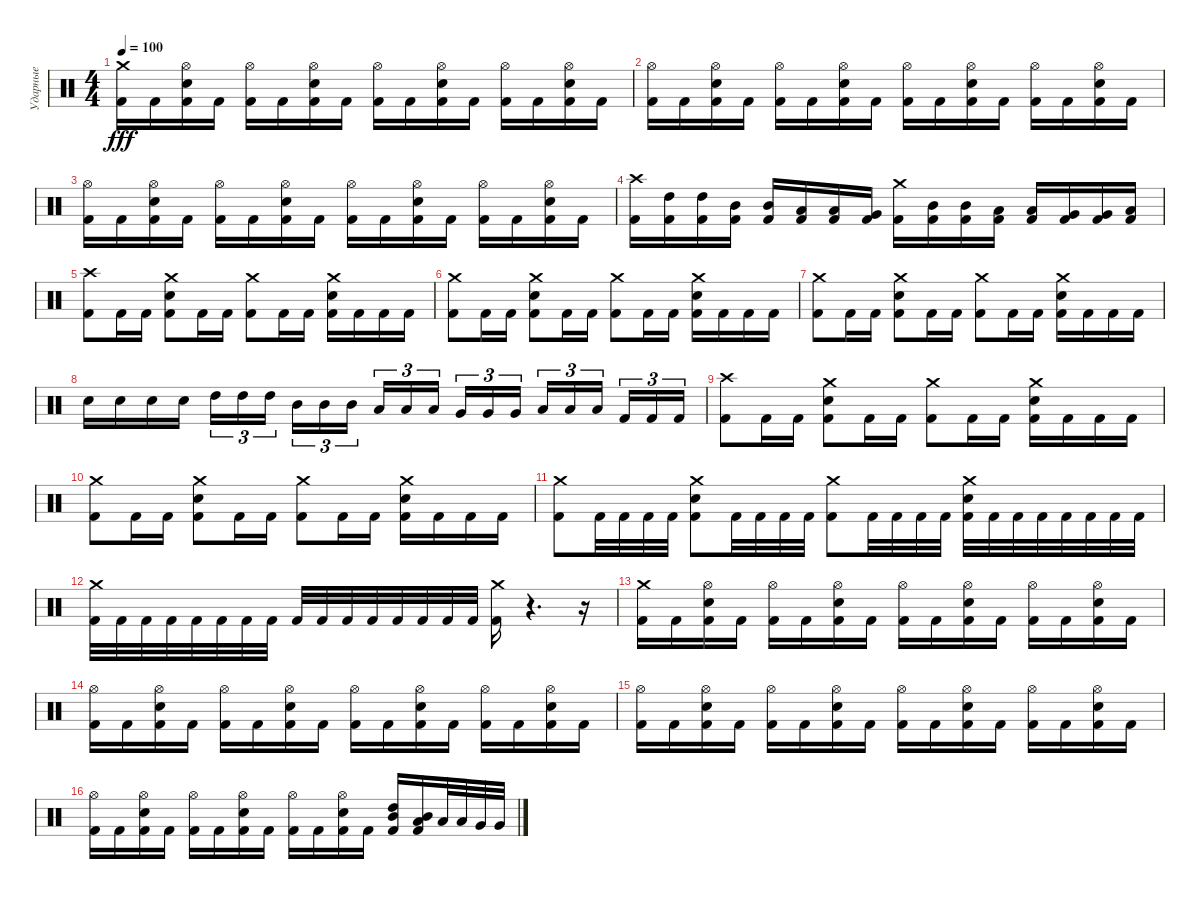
\track ("Ударные" "Ударные") {instrument percussion}
\staff {score}
\articulation defaults
\ts (4 4)
\tempo 100
\clef neutral
\ks c
("Crash medium (hit)" "Kick (hit) 2").16{dy fff} "Kick (hit) 2".16 ("Hi-Hat (open)" "Electric Snare (hit)" "Kick (hit) 2").16 "Kick (hit) 2".16 ("Hi-Hat (open)" "Kick (hit) 2").16 "Kick (hit) 2".16 ("Hi-Hat (open)" "Electric Snare (hit)" "Kick (hit) 2").16 "Kick (hit) 2".16 ("Hi-Hat (open)" "Kick (hit) 2").16 "Kick (hit) 2".16 ("Hi-Hat (open)" "Electric Snare (hit)" "Kick (hit) 2").16 "Kick (hit) 2".16 ("Hi-Hat (open)" "Kick (hit) 2").16 "Kick (hit) 2".16 ("Hi-Hat (open)" "Electric Snare (hit)" "Kick (hit) 2").16 "Kick (hit) 2".16 |
("Hi-Hat (open)" "Kick (hit) 2").16 "Kick (hit) 2".16 ("Hi-Hat (open)" "Electric Snare (hit)" "Kick (hit) 2").16 "Kick (hit) 2".16 ("Hi-Hat (open)" "Kick (hit) 2").16 "Kick (hit) 2".16 ("Hi-Hat (open)" "Electric Snare (hit)" "Kick (hit) 2").16 "Kick (hit) 2".16 ("Hi-Hat (open)" "Kick (hit) 2").16 "Kick (hit) 2".16 ("Hi-Hat (open)" "Electric Snare (hit)" "Kick (hit) 2").16 "Kick (hit) 2".16 ("Hi-Hat (open)" "Kick (hit) 2").16 "Kick (hit) 2".16 ("Hi-Hat (open)" "Electric Snare (hit)" "Kick (hit) 2").16 "Kick (hit) 2".16 |
("Hi-Hat (open)" "Kick (hit) 2").16 "Kick (hit) 2".16 ("Hi-Hat (open)" "Electric Snare (hit)" "Kick (hit) 2").16 "Kick (hit) 2".16 ("Hi-Hat (open)" "Kick (hit) 2").16 "Kick (hit) 2".16 ("Hi-Hat (open)" "Electric Snare (hit)" "Kick (hit) 2").16 "Kick (hit) 2".16 ("Hi-Hat (open)" "Kick (hit) 2").16 "Kick (hit) 2".16 ("Hi-Hat (open)" "Electric Snare (hit)" "Kick (hit) 2").16 "Kick (hit) 2".16 ("Hi-Hat (open)" "Kick (hit) 2").16 "Kick (hit) 2".16 ("Hi-Hat (open)" "Electric Snare (hit)" "Kick (hit) 2").16 "Kick (hit) 2".16 |
("Crash high (hit)" "Kick (hit) 2").16 ("High Tom (hit)" "Kick (hit) 2").16 ("High Tom (hit)" "Kick (hit) 2").16 ("Mid Tom (hit)" "Kick (hit) 2").16 ("Mid Tom (hit)" "Kick (hit) 2").16 ("Low Tom (hit)" "Kick (hit) 2").16 ("Low Tom (hit)" "Kick (hit) 2").16 ("Very Low Tom (hit)" "Kick (hit) 2").16 ("Crash medium (hit)" "Kick (hit) 2").16 ("Mid Tom (hit)" "Kick (hit) 2").16 ("Mid Tom (hit)" "Kick (hit) 2").16 ("Low Tom (hit)" "Kick (hit) 2").16 ("Low Tom (hit)" "Kick (hit) 2").16 ("Very Low Tom (hit)" "Kick (hit) 2").16 ("Very Low Tom (hit)" "Kick (hit) 2").16 ("Low Floor Tom (hit)" "Kick (hit) 2").16 |
("Crash high (hit)" "Kick (hit) 2").8 "Kick (hit) 2".16 "Kick (hit) 2".16 ("Crash medium (hit)" "Electric Snare (hit)" "Kick (hit) 2").8 "Kick (hit) 2".16 "Kick (hit) 2".16 ("Crash medium (hit)" "Kick (hit) 2").8 "Kick (hit) 2".16 "Kick (hit) 2".16 ("Crash medium (hit)" "Electric Snare (hit)" "Kick (hit) 2").16 "Kick (hit) 2".16 "Kick (hit) 2".16 "Kick (hit) 2".16 |
("Crash medium (hit)" "Kick (hit) 2").8 "Kick (hit) 2".16 "Kick (hit) 2".16 ("Crash medium (hit)" "Electric Snare (hit)" "Kick (hit) 2").8 "Kick (hit) 2".16 "Kick (hit) 2".16 ("Crash medium (hit)" "Kick (hit) 2").8 "Kick (hit) 2".16 "Kick (hit) 2".16 ("Crash medium (hit)" "Electric Snare (hit)" "Kick (hit) 2").16 "Kick (hit) 2".16 "Kick (hit) 2".16 "Kick (hit) 2".16 |
("Crash medium (hit)" "Kick (hit) 2").8 "Kick (hit) 2".16 "Kick (hit) 2".16 ("Crash medium (hit)" "Electric Snare (hit)" "Kick (hit) 2").8 "Kick (hit) 2".16 "Kick (hit) 2".16 ("Crash medium (hit)" "Kick (hit) 2").8 "Kick (hit) 2".16 "Kick (hit) 2".16 ("Crash medium (hit)" "Electric Snare (hit)" "Kick (hit) 2").16 "Kick (hit) 2".16 "Kick (hit) 2".16 "Kick (hit) 2".16 |
"Electric Snare (hit)".16 "Electric Snare (hit)".16 "Electric Snare (hit)".16 "Electric Snare (hit)".16 "High Tom (hit)".16{tu (3 2)} "High Tom (hit)".16{tu (3 2)} "High Tom (hit)".16{tu (3 2) beam splitsecondary} "Mid Tom (hit)".16{tu (3 2)} "Mid Tom (hit)".16{tu (3 2)} "Mid Tom (hit)".16{tu (3 2)} "Low Tom (hit)".16{tu (3 2)} "Low Tom (hit)".16{tu (3 2)} "Low Tom (hit)".16{tu (3 2) beam splitsecondary} "Very Low Tom (hit)".16{tu (3 2)} "Very Low Tom (hit)".16{tu (3 2)} "Very Low Tom (hit)".16{tu (3 2)} "Low Floor Tom (hit)".16{tu (3 2)} "Low Floor Tom (hit)".16{tu (3 2)} "Low Floor Tom (hit)".16{tu (3 2) beam splitsecondary} "Kick (hit) 2".16{tu (3 2)} "Kick (hit) 2".16{tu (3 2)} "Kick (hit) 2".16{tu (3 2)} |
("Crash high (hit)" "Kick (hit) 2").8 "Kick (hit) 2".16 "Kick (hit) 2".16 ("Crash medium (hit)" "Electric Snare (hit)" "Kick (hit) 2").8 "Kick (hit) 2".16 "Kick (hit) 2".16 ("Crash medium (hit)" "Kick (hit) 2").8 "Kick (hit) 2".16 "Kick (hit) 2".16 ("Crash medium (hit)" "Electric Snare (hit)" "Kick (hit) 2").16 "Kick (hit) 2".16 "Kick (hit) 2".16 "Kick (hit) 2".16 |
("Crash medium (hit)" "Kick (hit) 2").8 "Kick (hit) 2".16 "Kick (hit) 2".16 ("Crash medium (hit)" "Electric Snare (hit)" "Kick (hit) 2").8 "Kick (hit) 2".16 "Kick (hit) 2".16 ("Crash medium (hit)" "Kick (hit) 2").8 "Kick (hit) 2".16 "Kick (hit) 2".16 ("Crash medium (hit)" "Electric Snare (hit)" "Kick (hit) 2").16 "Kick (hit) 2".16 "Kick (hit) 2".16 "Kick (hit) 2".16 |
("Crash medium (hit)" "Kick (hit) 2").8 "Kick (hit) 2".32 "Kick (hit) 2".32 "Kick (hit) 2".32 "Kick (hit) 2".32 ("Crash medium (hit)" "Electric Snare (hit)" "Kick (hit) 2").8 "Kick (hit) 2".32 "Kick (hit) 2".32 "Kick (hit) 2".32 "Kick (hit) 2".32 ("Crash medium (hit)" "Kick (hit) 2").8 "Kick (hit) 2".32 "Kick (hit) 2".32 "Kick (hit) 2".32 "Kick (hit) 2".32 ("Crash medium (hit)" "Electric Snare (hit)" "Kick (hit) 2").32 "Kick (hit) 2".32 "Kick (hit) 2".32 "Kick (hit) 2".32 "Kick (hit) 2".32 "Kick (hit) 2".32 "Kick (hit) 2".32 "Kick (hit) 2".32 |
("Crash medium (hit)" "Kick (hit) 2").32 "Kick (hit) 2".32 "Kick (hit) 2".32 "Kick (hit) 2".32 "Kick (hit) 2".32 "Kick (hit) 2".32 "Kick (hit) 2".32 "Kick (hit) 2".32 "Kick (hit) 2".32 "Kick (hit) 2".32 "Kick (hit) 2".32 "Kick (hit) 2".32 "Kick (hit) 2".32 "Kick (hit) 2".32 "Kick (hit) 2".32 "Kick (hit) 2".32 ("Crash medium (hit)" "Kick (hit) 2").16 r.4{d} r.16 |
("Crash medium (hit)" "Kick (hit) 2").16 "Kick (hit) 2".16 ("Hi-Hat (open)" "Electric Snare (hit)" "Kick (hit) 2").16 "Kick (hit) 2".16 ("Hi-Hat (open)" "Kick (hit) 2").16 "Kick (hit) 2".16 ("Hi-Hat (open)" "Electric Snare (hit)" "Kick (hit) 2").16 "Kick (hit) 2".16 ("Hi-Hat (open)" "Kick (hit) 2").16 "Kick (hit) 2".16 ("Hi-Hat (open)" "Electric Snare (hit)" "Kick (hit) 2").16 "Kick (hit) 2".16 ("Hi-Hat (open)" "Kick (hit) 2").16 "Kick (hit) 2".16 ("Hi-Hat (open)" "Electric Snare (hit)" "Kick (hit) 2").16 "Kick (hit) 2".16 |
("Hi-Hat (open)" "Kick (hit) 2").16 "Kick (hit) 2".16 ("Hi-Hat (open)" "Electric Snare (hit)" "Kick (hit) 2").16 "Kick (hit) 2".16 ("Hi-Hat (open)" "Kick (hit) 2").16 "Kick (hit) 2".16 ("Hi-Hat (open)" "Electric Snare (hit)" "Kick (hit) 2").16 "Kick (hit) 2".16 ("Hi-Hat (open)" "Kick (hit) 2").16 "Kick (hit) 2".16 ("Hi-Hat (open)" "Electric Snare (hit)" "Kick (hit) 2").16 "Kick (hit) 2".16 ("Hi-Hat (open)" "Kick (hit) 2").16 "Kick (hit) 2".16 ("Hi-Hat (open)" "Electric Snare (hit)" "Kick (hit) 2").16 "Kick (hit) 2".16 |
("Hi-Hat (open)" "Kick (hit) 2").16 "Kick (hit) 2".16 ("Hi-Hat (open)" "Electric Snare (hit)" "Kick (hit) 2").16 "Kick (hit) 2".16 ("Hi-Hat (open)" "Kick (hit) 2").16 "Kick (hit) 2".16 ("Hi-Hat (open)" "Electric Snare (hit)" "Kick (hit) 2").16 "Kick (hit) 2".16 ("Hi-Hat (open)" "Kick (hit) 2").16 "Kick (hit) 2".16 ("Hi-Hat (open)" "Electric Snare (hit)" "Kick (hit) 2").16 "Kick (hit) 2".16 ("Hi-Hat (open)" "Kick (hit) 2").16 "Kick (hit) 2".16 ("Hi-Hat (open)" "Electric Snare (hit)" "Kick (hit) 2").16 "Kick (hit) 2".16 |
("Hi-Hat (open)" "Kick (hit) 2").16 "Kick (hit) 2".16 ("Hi-Hat (open)" "Electric Snare (hit)" "Kick (hit) 2").16 "Kick (hit) 2".16 ("Hi-Hat (open)" "Kick (hit) 2").16 "Kick (hit) 2".16 ("Hi-Hat (open)" "Electric Snare (hit)" "Kick (hit) 2").16 "Kick (hit) 2".16 ("Hi-Hat (open)" "Kick (hit) 2").16 "Kick (hit) 2".16 ("Hi-Hat (open)" "Electric Snare (hit)" "Kick (hit) 2").16 "Kick (hit) 2".16 ("High Tom (hit)" "Mid Tom (hit)" "Kick (hit) 2").16 ("Mid Tom (hit)" "Low Tom (hit)" "Kick (hit) 2").16 "Low Tom (hit)".32 "Low Tom (hit)".32 "Very Low Tom (hit)".32 "Very Low Tom (hit)".32
